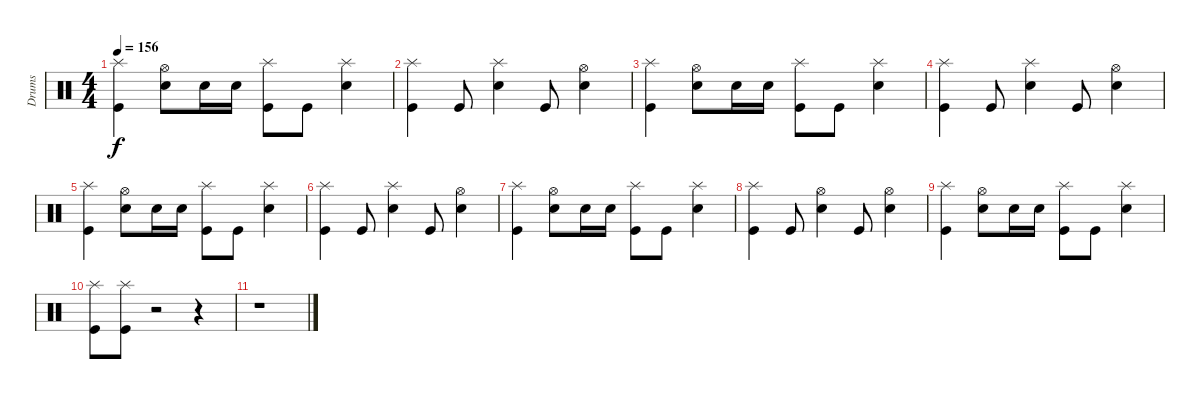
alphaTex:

\track ("Drums" "Drums") {instrument percussion}
\staff {score}
\articulation defaults
\ts (4 4)
\tempo 156
\clef neutral
\ks c
("Splash (hit)" "Kick (hit)").4{dy f} ("Hi-Hat (open)" "Snare (hit) 2").8 "Snare (hit) 2".16 "Snare (hit) 2".16 ("Splash (hit)" "Kick (hit)").8 "Kick (hit)".8 ("Splash (hit)" "Snare (hit) 2").4 |
("Splash (hit)" "Kick (hit)").4 "Kick (hit)".8 ("Splash (hit)" "Snare (hit) 2").4 "Kick (hit)".8 ("Hi-Hat (open)" "Snare (hit) 2").4 |
("Splash (hit)" "Kick (hit)").4 ("Hi-Hat (open)" "Snare (hit) 2").8 "Snare (hit) 2".16 "Snare (hit) 2".16 ("Splash (hit)" "Kick (hit)").8 "Kick (hit)".8 ("Splash (hit)" "Snare (hit) 2").4 |
("Splash (hit)" "Kick (hit)").4 "Kick (hit)".8 ("Splash (hit)" "Snare (hit) 2").4 "Kick (hit)".8 ("Hi-Hat (open)" "Snare (hit) 2").4 |
("Splash (hit)" "Kick (hit)").4 ("Hi-Hat (open)" "Snare (hit) 2").8 "Snare (hit) 2".16 "Snare (hit) 2".16 ("Splash (hit)" "Kick (hit)").8 "Kick (hit)".8 ("Splash (hit)" "Snare (hit) 2").4 |
("Splash (hit)" "Kick (hit)").4 "Kick (hit)".8 ("Splash (hit)" "Snare (hit) 2").4 "Kick (hit)".8 ("Hi-Hat (open)" "Snare (hit) 2").4 |
("Splash (hit)" "Kick (hit)").4 ("Hi-Hat (open)" "Snare (hit) 2").8 "Snare (hit) 2".16 "Snare (hit) 2".16 ("Splash (hit)" "Kick (hit)").8 "Kick (hit)".8 ("Splash (hit)" "Snare (hit) 2").4 |
("Splash (hit)" "Kick (hit)").4 "Kick (hit)".8 ("Hi-Hat (open)" "Snare (hit) 2").4 "Kick (hit)".8 ("Hi-Hat (open)" "Snare (hit) 2").4 |
("Splash (hit)" "Kick (hit)").4 ("Hi-Hat (open)" "Snare (hit) 2").8 "Snare (hit) 2".16 "Snare (hit) 2".16 ("Splash (hit)" "Kick (hit)").8 "Kick (hit)".8 ("Splash (hit)" "Snare (hit) 2").4 |
("Splash (hit)" "Kick (hit)").8 ("Splash (hit)" "Kick (hit)").8 r.2 r.4 |
r.1
